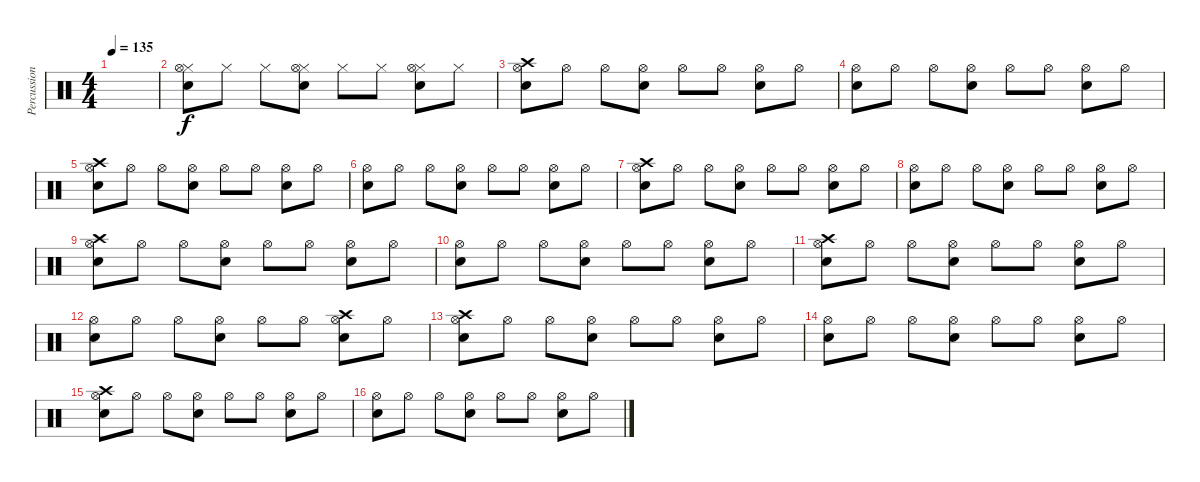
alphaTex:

\track ("Percussions" "Percussion") {instrument percussion}
\staff {score}
\articulation defaults
\ts (4 4)
\tempo 135
\clef neutral
\ks c
|
("Electric Snare (hit)" "Hi-Hat (closed)" "Hi-Hat (open)").8 "Hi-Hat (closed)".8 "Hi-Hat (closed)".8 ("Electric Snare (hit)" "Hi-Hat (closed)" "Hi-Hat (open)").8 "Hi-Hat (closed)".8 "Hi-Hat (closed)".8 ("Electric Snare (hit)" "Hi-Hat (closed)" "Hi-Hat (open)").8 "Hi-Hat (closed)".8 |
("Crash high (hit)" "Hi-Hat (open)" "Electric Snare (hit)").8 "Hi-Hat (open)".8 "Hi-Hat (open)".8 ("Hi-Hat (open)" "Electric Snare (hit)").8 "Hi-Hat (open)".8 "Hi-Hat (open)".8 ("Hi-Hat (open)" "Electric Snare (hit)").8 "Hi-Hat (open)".8 |
("Hi-Hat (open)" "Electric Snare (hit)").8 "Hi-Hat (open)".8 "Hi-Hat (open)".8 ("Hi-Hat (open)" "Electric Snare (hit)").8 "Hi-Hat (open)".8 "Hi-Hat (open)".8 ("Hi-Hat (open)" "Electric Snare (hit)").8 "Hi-Hat (open)".8 |
("Crash high (hit)" "Hi-Hat (open)" "Electric Snare (hit)").8 "Hi-Hat (open)".8 "Hi-Hat (open)".8 ("Hi-Hat (open)" "Electric Snare (hit)").8 "Hi-Hat (open)".8 "Hi-Hat (open)".8 ("Hi-Hat (open)" "Electric Snare (hit)").8 "Hi-Hat (open)".8 |
("Hi-Hat (open)" "Electric Snare (hit)").8 "Hi-Hat (open)".8 "Hi-Hat (open)".8 ("Hi-Hat (open)" "Electric Snare (hit)").8 "Hi-Hat (open)".8 "Hi-Hat (open)".8 ("Hi-Hat (open)" "Electric Snare (hit)").8 "Hi-Hat (open)".8 |
("Crash high (hit)" "Hi-Hat (open)" "Electric Snare (hit)").8 "Hi-Hat (open)".8 "Hi-Hat (open)".8 ("Hi-Hat (open)" "Electric Snare (hit)").8 "Hi-Hat (open)".8 "Hi-Hat (open)".8 ("Hi-Hat (open)" "Electric Snare (hit)").8 "Hi-Hat (open)".8 |
("Hi-Hat (open)" "Electric Snare (hit)").8 "Hi-Hat (open)".8 "Hi-Hat (open)".8 ("Hi-Hat (open)" "Electric Snare (hit)").8 "Hi-Hat (open)".8 "Hi-Hat (open)".8 ("Hi-Hat (open)" "Electric Snare (hit)").8 "Hi-Hat (open)".8 |
("Crash high (hit)" "Hi-Hat (open)" "Electric Snare (hit)").8 "Hi-Hat (open)".8 "Hi-Hat (open)".8 ("Hi-Hat (open)" "Electric Snare (hit)").8 "Hi-Hat (open)".8 "Hi-Hat (open)".8 ("Hi-Hat (open)" "Electric Snare (hit)").8 "Hi-Hat (open)".8 |
("Hi-Hat (open)" "Electric Snare (hit)").8 "Hi-Hat (open)".8 "Hi-Hat (open)".8 ("Hi-Hat (open)" "Electric Snare (hit)").8 "Hi-Hat (open)".8 "Hi-Hat (open)".8 ("Hi-Hat (open)" "Electric Snare (hit)").8 "Hi-Hat (open)".8 |
("Crash high (hit)" "Hi-Hat (open)" "Electric Snare (hit)").8 "Hi-Hat (open)".8 "Hi-Hat (open)".8 ("Hi-Hat (open)" "Electric Snare (hit)").8 "Hi-Hat (open)".8 "Hi-Hat (open)".8 ("Hi-Hat (open)" "Electric Snare (hit)").8 "Hi-Hat (open)".8 |
("Hi-Hat (open)" "Electric Snare (hit)").8 "Hi-Hat (open)".8 "Hi-Hat (open)".8 ("Hi-Hat (open)" "Electric Snare (hit)").8 "Hi-Hat (open)".8 "Hi-Hat (open)".8 ("Crash high (hit)" "Hi-Hat (open)" "Electric Snare (hit)").8 "Hi-Hat (open)".8 |
("Crash high (hit)" "Hi-Hat (open)" "Electric Snare (hit)").8 "Hi-Hat (open)".8 "Hi-Hat (open)".8 ("Hi-Hat (open)" "Electric Snare (hit)").8 "Hi-Hat (open)".8 "Hi-Hat (open)".8 ("Hi-Hat (open)" "Electric Snare (hit)").8 "Hi-Hat (open)".8 |
("Hi-Hat (open)" "Electric Snare (hit)").8 "Hi-Hat (open)".8 "Hi-Hat (open)".8 ("Hi-Hat (open)" "Electric Snare (hit)").8 "Hi-Hat (open)".8 "Hi-Hat (open)".8 ("Hi-Hat (open)" "Electric Snare (hit)").8 "Hi-Hat (open)".8 |
("Crash high (hit)" "Hi-Hat (open)" "Electric Snare (hit)").8 "Hi-Hat (open)".8 "Hi-Hat (open)".8 ("Hi-Hat (open)" "Electric Snare (hit)").8 "Hi-Hat (open)".8 "Hi-Hat (open)".8 ("Hi-Hat (open)" "Electric Snare (hit)").8 "Hi-Hat (open)".8 |
("Hi-Hat (open)" "Electric Snare (hit)").8 "Hi-Hat (open)".8 "Hi-Hat (open)".8 ("Hi-Hat (open)" "Electric Snare (hit)").8 "Hi-Hat (open)".8 "Hi-Hat (open)".8 ("Hi-Hat (open)" "Electric Snare (hit)").8 "Hi-Hat (open)".8
